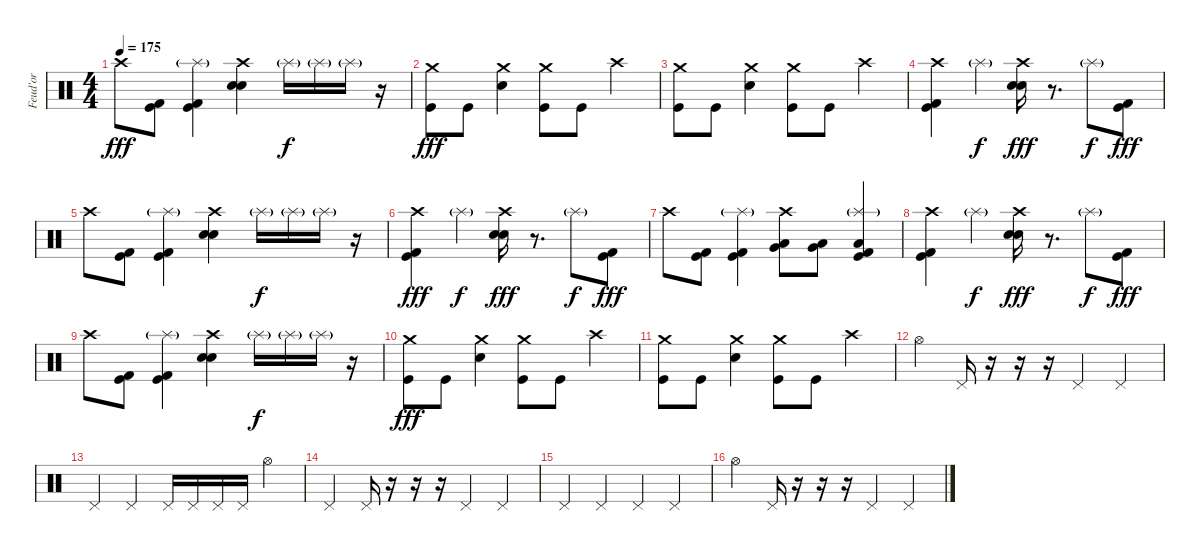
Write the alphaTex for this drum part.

\track ("Feud'or" "Feud'or") {instrument percussion}
\staff {score}
\articulation defaults
\ts (4 4)
\tempo 175
\clef neutral
\ks c "Crash high (hit)".8{dy fff}
("Kick (hit) 2" "Kick (hit)").8 ("Splash (hit)"{g} "Kick (hit) 2" "Kick (hit)").4 ("Crash high (hit)" "Electric Snare (hit)" "Snare (hit) 2").4 "Splash (hit)"{g}.16{dy f} "Splash (hit)"{g}.16 "Splash (hit)"{g}.16 r.16 |
("Crash medium (hit)" "Kick (hit)").8{dy fff} "Kick (hit)".8 ("Crash medium (hit)" "Snare (hit) 2").4 ("Crash medium (hit)" "Kick (hit)").8 "Kick (hit)".8 "Crash high (hit)".4 |
("Crash medium (hit)" "Kick (hit)").8 "Kick (hit)".8 ("Crash medium (hit)" "Snare (hit) 2").4 ("Crash medium (hit)" "Kick (hit)").8 "Kick (hit)".8 "Crash high (hit)".4 |
("Crash high (hit)" "Kick (hit) 2" "Kick (hit)").4 "Splash (hit)"{g}.4{dy f} ("Crash high (hit)" "Electric Snare (hit)" "Snare (hit) 2").16{dy fff} r.8{d} "Splash (hit)"{g}.8{dy f} ("Kick (hit) 2" "Kick (hit)").8{dy fff} |
"Crash high (hit)".8 ("Kick (hit) 2" "Kick (hit)").8 ("Splash (hit)"{g} "Kick (hit) 2" "Kick (hit)").4 ("Crash high (hit)" "Electric Snare (hit)" "Snare (hit) 2").4 "Splash (hit)"{g}.16{dy f} "Splash (hit)"{g}.16 "Splash (hit)"{g}.16 r.16 |
("Crash high (hit)" "Kick (hit) 2" "Kick (hit)").4{dy fff} "Splash (hit)"{g}.4{dy f} ("Crash high (hit)" "Electric Snare (hit)" "Snare (hit) 2").16{dy fff} r.8{d} "Splash (hit)"{g}.8{dy f} ("Kick (hit) 2" "Kick (hit)").8{dy fff} |
"Crash high (hit)".8 ("Kick (hit) 2" "Kick (hit)").8 ("Splash (hit)"{g} "Kick (hit) 2" "Kick (hit)").4 ("Crash high (hit)" "Low Tom (hit)" "Very Low Tom (hit)").8 ("Low Tom (hit)" "Very Low Tom (hit)").8 ("Splash (hit)"{g} "Low Floor Tom (hit)" "Kick (hit) 2" "Kick (hit)").4 |
("Crash high (hit)" "Kick (hit) 2" "Kick (hit)").4 "Splash (hit)"{g}.4{dy f} ("Crash high (hit)" "Electric Snare (hit)" "Snare (hit) 2").16{dy fff} r.8{d} "Splash (hit)"{g}.8{dy f} ("Kick (hit) 2" "Kick (hit)").8{dy fff} |
"Crash high (hit)".8 ("Kick (hit) 2" "Kick (hit)").8 ("Splash (hit)"{g} "Kick (hit) 2" "Kick (hit)").4 ("Crash high (hit)" "Electric Snare (hit)" "Snare (hit) 2").4 "Splash (hit)"{g}.16{dy f} "Splash (hit)"{g}.16 "Splash (hit)"{g}.16 r.16 |
("Crash medium (hit)" "Kick (hit)").8{dy fff} "Kick (hit)".8 ("Crash medium (hit)" "Snare (hit) 2").4 ("Crash medium (hit)" "Kick (hit)").8 "Kick (hit)".8 "Crash high (hit)".4 |
("Crash medium (hit)" "Kick (hit)").8 "Kick (hit)".8 ("Crash medium (hit)" "Snare (hit) 2").4 ("Crash medium (hit)" "Kick (hit)").8 "Kick (hit)".8 "Crash high (hit)".4 |
"Hi-Hat (open)".4 "Pedal Hi-Hat (hit)".16 r.16 r.16 r.16 "Pedal Hi-Hat (hit)".4 "Pedal Hi-Hat (hit)".4 |
"Pedal Hi-Hat (hit)".4 "Pedal Hi-Hat (hit)".4 "Pedal Hi-Hat (hit)".16 "Pedal Hi-Hat (hit)".16 "Pedal Hi-Hat (hit)".16 "Pedal Hi-Hat (hit)".16 "Hi-Hat (open)".4 |
"Pedal Hi-Hat (hit)".4 "Pedal Hi-Hat (hit)".16 r.16 r.16 r.16 "Pedal Hi-Hat (hit)".4 "Pedal Hi-Hat (hit)".4 |
"Pedal Hi-Hat (hit)".4 "Pedal Hi-Hat (hit)".4 "Pedal Hi-Hat (hit)".4 "Pedal Hi-Hat (hit)".4 |
"Hi-Hat (open)".4 "Pedal Hi-Hat (hit)".16 r.16 r.16 r.16 "Pedal Hi-Hat (hit)".4 "Pedal Hi-Hat (hit)".4
